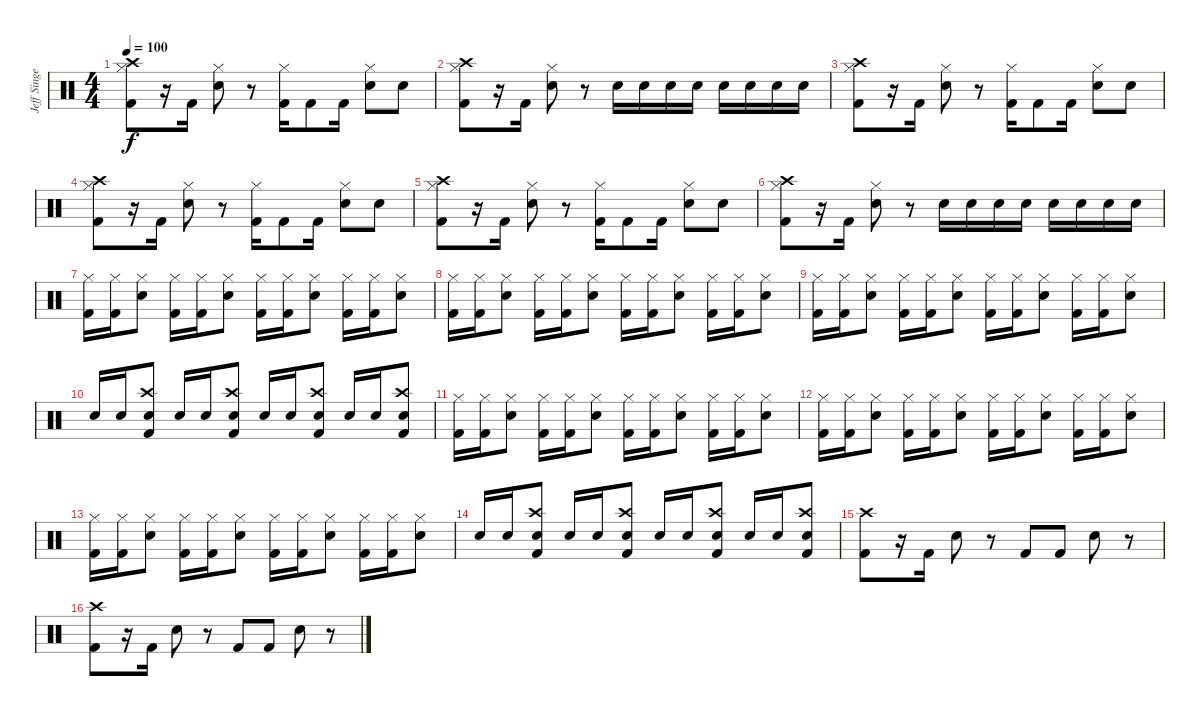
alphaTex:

\track ("Jeff Singer" "Jeff Singe") {instrument percussion}
\staff {score}
\articulation defaults
\ts (4 4)
\tempo 100
\clef neutral
\ks c
("Hi-Hat (closed)" "Kick (hit) 2" "Crash high (hit)").8{dy f} r.16 "Kick (hit) 2".16 ("Hi-Hat (closed)" "Snare (hit) 2").8 r.8 ("Hi-Hat (closed)" "Kick (hit) 2").16 "Kick (hit) 2".8 "Kick (hit) 2".16 ("Hi-Hat (closed)" "Snare (hit) 2").8 "Snare (hit) 2".8 |
("Hi-Hat (closed)" "Kick (hit) 2" "Crash high (hit)").8 r.16 "Kick (hit) 2".16 ("Hi-Hat (closed)" "Snare (hit) 2").8 r.8 "Snare (hit) 2".16 "Snare (hit) 2".16 "Snare (hit) 2".16 "Snare (hit) 2".16 "Snare (hit) 2".16 "Snare (hit) 2".16 "Snare (hit) 2".16 "Snare (hit) 2".16 |
("Hi-Hat (closed)" "Kick (hit) 2" "Crash high (hit)").8 r.16 "Kick (hit) 2".16 ("Hi-Hat (closed)" "Snare (hit) 2").8 r.8 ("Hi-Hat (closed)" "Kick (hit) 2").16 "Kick (hit) 2".8 "Kick (hit) 2".16 ("Hi-Hat (closed)" "Snare (hit) 2").8 "Snare (hit) 2".8 |
("Hi-Hat (closed)" "Kick (hit) 2" "Crash high (hit)").8 r.16 "Kick (hit) 2".16 ("Hi-Hat (closed)" "Snare (hit) 2").8 r.8 ("Hi-Hat (closed)" "Kick (hit) 2").16 "Kick (hit) 2".8 "Kick (hit) 2".16 ("Hi-Hat (closed)" "Snare (hit) 2").8 "Snare (hit) 2".8 |
("Hi-Hat (closed)" "Kick (hit) 2" "Crash high (hit)").8 r.16 "Kick (hit) 2".16 ("Hi-Hat (closed)" "Snare (hit) 2").8 r.8 ("Hi-Hat (closed)" "Kick (hit) 2").16 "Kick (hit) 2".8 "Kick (hit) 2".16 ("Hi-Hat (closed)" "Snare (hit) 2").8 "Snare (hit) 2".8 |
("Hi-Hat (closed)" "Kick (hit) 2" "Crash high (hit)").8 r.16 "Kick (hit) 2".16 ("Hi-Hat (closed)" "Snare (hit) 2").8 r.8 "Snare (hit) 2".16 "Snare (hit) 2".16 "Snare (hit) 2".16 "Snare (hit) 2".16 "Snare (hit) 2".16 "Snare (hit) 2".16 "Snare (hit) 2".16 "Snare (hit) 2".16 |
("Hi-Hat (closed)" "Kick (hit) 2").16 ("Hi-Hat (closed)" "Kick (hit) 2").16 ("Hi-Hat (closed)" "Snare (hit) 2").8 ("Hi-Hat (closed)" "Kick (hit) 2").16 ("Hi-Hat (closed)" "Kick (hit) 2").16 ("Hi-Hat (closed)" "Snare (hit) 2").8 ("Hi-Hat (closed)" "Kick (hit) 2").16 ("Hi-Hat (closed)" "Kick (hit) 2").16 ("Hi-Hat (closed)" "Snare (hit) 2").8 ("Hi-Hat (closed)" "Kick (hit) 2").16 ("Hi-Hat (closed)" "Kick (hit) 2").16 ("Hi-Hat (closed)" "Snare (hit) 2").8 |
("Hi-Hat (closed)" "Kick (hit) 2").16 ("Hi-Hat (closed)" "Kick (hit) 2").16 ("Hi-Hat (closed)" "Snare (hit) 2").8 ("Hi-Hat (closed)" "Kick (hit) 2").16 ("Hi-Hat (closed)" "Kick (hit) 2").16 ("Hi-Hat (closed)" "Snare (hit) 2").8 ("Hi-Hat (closed)" "Kick (hit) 2").16 ("Hi-Hat (closed)" "Kick (hit) 2").16 ("Hi-Hat (closed)" "Snare (hit) 2").8 ("Hi-Hat (closed)" "Kick (hit) 2").16 ("Hi-Hat (closed)" "Kick (hit) 2").16 ("Hi-Hat (closed)" "Snare (hit) 2").8 |
("Hi-Hat (closed)" "Kick (hit) 2").16 ("Hi-Hat (closed)" "Kick (hit) 2").16 ("Hi-Hat (closed)" "Snare (hit) 2").8 ("Hi-Hat (closed)" "Kick (hit) 2").16 ("Hi-Hat (closed)" "Kick (hit) 2").16 ("Hi-Hat (closed)" "Snare (hit) 2").8 ("Hi-Hat (closed)" "Kick (hit) 2").16 ("Hi-Hat (closed)" "Kick (hit) 2").16 ("Hi-Hat (closed)" "Snare (hit) 2").8 ("Hi-Hat (closed)" "Kick (hit) 2").16 ("Hi-Hat (closed)" "Kick (hit) 2").16 ("Hi-Hat (closed)" "Snare (hit) 2").8 |
"Snare (hit) 2".16 "Snare (hit) 2".16 ("Snare (hit) 2" "Kick (hit) 2" "Crash high (hit)").8 "Snare (hit) 2".16 "Snare (hit) 2".16 ("Snare (hit) 2" "Kick (hit) 2" "Crash high (hit)").8 "Snare (hit) 2".16 "Snare (hit) 2".16 ("Snare (hit) 2" "Kick (hit) 2" "Crash high (hit)").8 "Snare (hit) 2".16 "Snare (hit) 2".16 ("Snare (hit) 2" "Kick (hit) 2" "Crash high (hit)").8 |
("Hi-Hat (closed)" "Kick (hit) 2").16 ("Hi-Hat (closed)" "Kick (hit) 2").16 ("Hi-Hat (closed)" "Snare (hit) 2").8 ("Hi-Hat (closed)" "Kick (hit) 2").16 ("Hi-Hat (closed)" "Kick (hit) 2").16 ("Hi-Hat (closed)" "Snare (hit) 2").8 ("Hi-Hat (closed)" "Kick (hit) 2").16 ("Hi-Hat (closed)" "Kick (hit) 2").16 ("Hi-Hat (closed)" "Snare (hit) 2").8 ("Hi-Hat (closed)" "Kick (hit) 2").16 ("Hi-Hat (closed)" "Kick (hit) 2").16 ("Hi-Hat (closed)" "Snare (hit) 2").8 |
("Hi-Hat (closed)" "Kick (hit) 2").16 ("Hi-Hat (closed)" "Kick (hit) 2").16 ("Hi-Hat (closed)" "Snare (hit) 2").8 ("Hi-Hat (closed)" "Kick (hit) 2").16 ("Hi-Hat (closed)" "Kick (hit) 2").16 ("Hi-Hat (closed)" "Snare (hit) 2").8 ("Hi-Hat (closed)" "Kick (hit) 2").16 ("Hi-Hat (closed)" "Kick (hit) 2").16 ("Hi-Hat (closed)" "Snare (hit) 2").8 ("Hi-Hat (closed)" "Kick (hit) 2").16 ("Hi-Hat (closed)" "Kick (hit) 2").16 ("Hi-Hat (closed)" "Snare (hit) 2").8 |
("Hi-Hat (closed)" "Kick (hit) 2").16 ("Hi-Hat (closed)" "Kick (hit) 2").16 ("Hi-Hat (closed)" "Snare (hit) 2").8 ("Hi-Hat (closed)" "Kick (hit) 2").16 ("Hi-Hat (closed)" "Kick (hit) 2").16 ("Hi-Hat (closed)" "Snare (hit) 2").8 ("Hi-Hat (closed)" "Kick (hit) 2").16 ("Hi-Hat (closed)" "Kick (hit) 2").16 ("Hi-Hat (closed)" "Snare (hit) 2").8 ("Hi-Hat (closed)" "Kick (hit) 2").16 ("Hi-Hat (closed)" "Kick (hit) 2").16 ("Hi-Hat (closed)" "Snare (hit) 2").8 |
"Snare (hit) 2".16 "Snare (hit) 2".16 ("Snare (hit) 2" "Kick (hit) 2" "Crash high (hit)").8 "Snare (hit) 2".16 "Snare (hit) 2".16 ("Snare (hit) 2" "Kick (hit) 2" "Crash high (hit)").8 "Snare (hit) 2".16 "Snare (hit) 2".16 ("Snare (hit) 2" "Kick (hit) 2" "Crash high (hit)").8 "Snare (hit) 2".16 "Snare (hit) 2".16 ("Snare (hit) 2" "Kick (hit) 2" "Crash high (hit)").8 |
("Kick (hit) 2" "Crash high (hit)").8 r.16 "Kick (hit) 2".16 "Snare (hit) 2".8 r.8 "Kick (hit) 2".8 "Kick (hit) 2".8 "Snare (hit) 2".8 r.8 |
("Kick (hit) 2" "Crash high (hit)").8 r.16 "Kick (hit) 2".16 "Snare (hit) 2".8 r.8 "Kick (hit) 2".8 "Kick (hit) 2".8 "Snare (hit) 2".8 r.8
